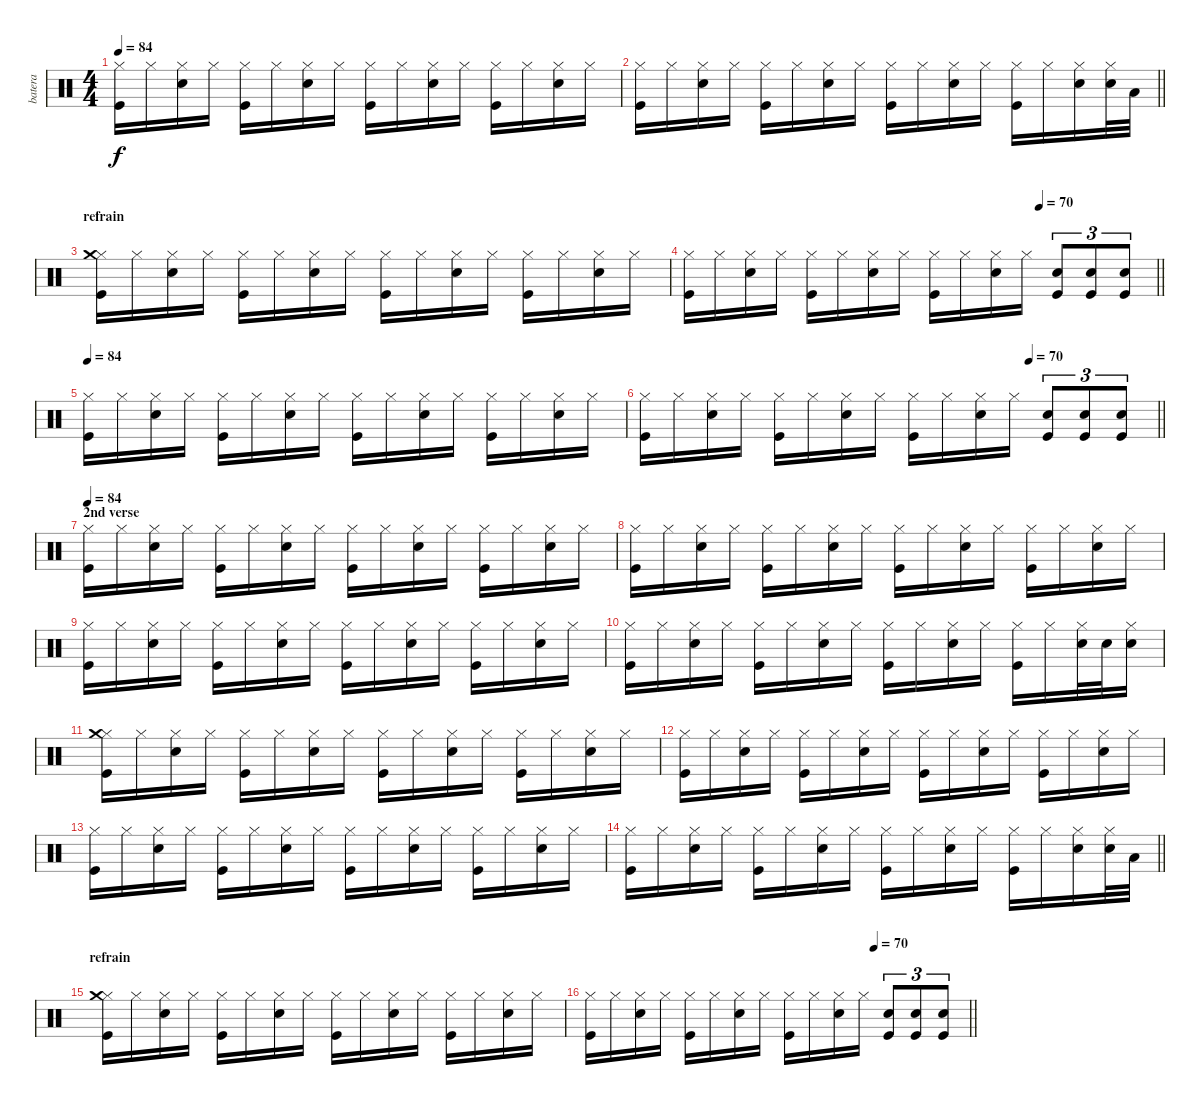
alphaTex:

\track ("batera" "batera") {solo instrument percussion}
\staff {score}
\articulation defaults
\ts (4 4)
\tempo 84
\clef neutral
\ks c
("Hi-Hat (closed)" "Kick (hit)").16{dy f} "Hi-Hat (closed)".16 ("Hi-Hat (closed)" "Snare (hit) 2").16 "Hi-Hat (closed)".16 ("Hi-Hat (closed)" "Kick (hit)").16 "Hi-Hat (closed)".16 ("Hi-Hat (closed)" "Snare (hit) 2").16 "Hi-Hat (closed)".16 ("Hi-Hat (closed)" "Kick (hit)").16 "Hi-Hat (closed)".16 ("Hi-Hat (closed)" "Snare (hit) 2").16 "Hi-Hat (closed)".16 ("Hi-Hat (closed)" "Kick (hit)").16 "Hi-Hat (closed)".16 ("Hi-Hat (closed)" "Snare (hit) 2").16 "Hi-Hat (closed)".16 |
\barLineRight lightlight
("Hi-Hat (closed)" "Kick (hit)").16 "Hi-Hat (closed)".16 ("Hi-Hat (closed)" "Snare (hit) 2").16 "Hi-Hat (closed)".16 ("Hi-Hat (closed)" "Kick (hit)").16 "Hi-Hat (closed)".16 ("Hi-Hat (closed)" "Snare (hit) 2").16 "Hi-Hat (closed)".16 ("Hi-Hat (closed)" "Kick (hit)").16 "Hi-Hat (closed)".16 ("Hi-Hat (closed)" "Snare (hit) 2").16 "Hi-Hat (closed)".16 ("Hi-Hat (closed)" "Kick (hit)").16 "Hi-Hat (closed)".16 ("Hi-Hat (closed)" "Snare (hit) 2").16 ("Hi-Hat (closed)" "Snare (hit) 2").32 "Low Tom (hit)".32 |
\section ("" "refrain")
("Hi-Hat (closed)" "Crash medium (hit)" "Kick (hit)").16 "Hi-Hat (closed)".16 ("Hi-Hat (closed)" "Snare (hit) 2").16 "Hi-Hat (closed)".16 ("Hi-Hat (closed)" "Kick (hit)").16 "Hi-Hat (closed)".16 ("Hi-Hat (closed)" "Snare (hit) 2").16 "Hi-Hat (closed)".16 ("Hi-Hat (closed)" "Kick (hit)").16 "Hi-Hat (closed)".16 ("Hi-Hat (closed)" "Snare (hit) 2").16 "Hi-Hat (closed)".16 ("Hi-Hat (closed)" "Kick (hit)").16 "Hi-Hat (closed)".16 ("Hi-Hat (closed)" "Snare (hit) 2").16 "Hi-Hat (closed)".16 |
\tempo (70 0.75)
\barLineRight lightlight
("Hi-Hat (closed)" "Kick (hit)").16 "Hi-Hat (closed)".16 ("Hi-Hat (closed)" "Snare (hit) 2").16 "Hi-Hat (closed)".16 ("Hi-Hat (closed)" "Kick (hit)").16 "Hi-Hat (closed)".16 ("Hi-Hat (closed)" "Snare (hit) 2").16 "Hi-Hat (closed)".16 ("Hi-Hat (closed)" "Kick (hit)").16 "Hi-Hat (closed)".16 ("Hi-Hat (closed)" "Snare (hit) 2").16 "Hi-Hat (closed)".16 ("Snare (hit) 2" "Kick (hit)").8{tu (3 2)} ("Snare (hit) 2" "Kick (hit)").8{tu (3 2)} ("Snare (hit) 2" "Kick (hit)").8{tu (3 2)} |
\tempo 84
("Hi-Hat (closed)" "Kick (hit)").16 "Hi-Hat (closed)".16 ("Hi-Hat (closed)" "Snare (hit) 2").16 "Hi-Hat (closed)".16 ("Hi-Hat (closed)" "Kick (hit)").16 "Hi-Hat (closed)".16 ("Hi-Hat (closed)" "Snare (hit) 2").16 "Hi-Hat (closed)".16 ("Hi-Hat (closed)" "Kick (hit)").16 "Hi-Hat (closed)".16 ("Hi-Hat (closed)" "Snare (hit) 2").16 "Hi-Hat (closed)".16 ("Hi-Hat (closed)" "Kick (hit)").16 "Hi-Hat (closed)".16 ("Hi-Hat (closed)" "Snare (hit) 2").16 "Hi-Hat (closed)".16 |
\tempo (70 0.75)
\barLineRight lightlight
("Hi-Hat (closed)" "Kick (hit)").16 "Hi-Hat (closed)".16 ("Hi-Hat (closed)" "Snare (hit) 2").16 "Hi-Hat (closed)".16 ("Hi-Hat (closed)" "Kick (hit)").16 "Hi-Hat (closed)".16 ("Hi-Hat (closed)" "Snare (hit) 2").16 "Hi-Hat (closed)".16 ("Hi-Hat (closed)" "Kick (hit)").16 "Hi-Hat (closed)".16 ("Hi-Hat (closed)" "Snare (hit) 2").16 "Hi-Hat (closed)".16 ("Snare (hit) 2" "Kick (hit)").8{tu (3 2)} ("Snare (hit) 2" "Kick (hit)").8{tu (3 2)} ("Snare (hit) 2" "Kick (hit)").8{tu (3 2)} |
\section ("" "2nd verse")
\tempo 84
("Hi-Hat (closed)" "Kick (hit)").16 "Hi-Hat (closed)".16 ("Hi-Hat (closed)" "Snare (hit) 2").16 "Hi-Hat (closed)".16 ("Hi-Hat (closed)" "Kick (hit)").16 "Hi-Hat (closed)".16 ("Hi-Hat (closed)" "Snare (hit) 2").16 "Hi-Hat (closed)".16 ("Hi-Hat (closed)" "Kick (hit)").16 "Hi-Hat (closed)".16 ("Hi-Hat (closed)" "Snare (hit) 2").16 "Hi-Hat (closed)".16 ("Hi-Hat (closed)" "Kick (hit)").16 "Hi-Hat (closed)".16 ("Hi-Hat (closed)" "Snare (hit) 2").16 "Hi-Hat (closed)".16 |
("Hi-Hat (closed)" "Kick (hit)").16 "Hi-Hat (closed)".16 ("Hi-Hat (closed)" "Snare (hit) 2").16 "Hi-Hat (closed)".16 ("Hi-Hat (closed)" "Kick (hit)").16 "Hi-Hat (closed)".16 ("Hi-Hat (closed)" "Snare (hit) 2").16 "Hi-Hat (closed)".16 ("Hi-Hat (closed)" "Kick (hit)").16 "Hi-Hat (closed)".16 ("Hi-Hat (closed)" "Snare (hit) 2").16 "Hi-Hat (closed)".16 ("Hi-Hat (closed)" "Kick (hit)").16 "Hi-Hat (closed)".16 ("Hi-Hat (closed)" "Snare (hit) 2").16 "Hi-Hat (closed)".16 |
("Hi-Hat (closed)" "Kick (hit)").16 "Hi-Hat (closed)".16 ("Hi-Hat (closed)" "Snare (hit) 2").16 "Hi-Hat (closed)".16 ("Hi-Hat (closed)" "Kick (hit)").16 "Hi-Hat (closed)".16 ("Hi-Hat (closed)" "Snare (hit) 2").16 "Hi-Hat (closed)".16 ("Hi-Hat (closed)" "Kick (hit)").16 "Hi-Hat (closed)".16 ("Hi-Hat (closed)" "Snare (hit) 2").16 "Hi-Hat (closed)".16 ("Hi-Hat (closed)" "Kick (hit)").16 "Hi-Hat (closed)".16 ("Hi-Hat (closed)" "Snare (hit) 2").16 "Hi-Hat (closed)".16 |
("Hi-Hat (closed)" "Kick (hit)").16 "Hi-Hat (closed)".16 ("Hi-Hat (closed)" "Snare (hit) 2").16 "Hi-Hat (closed)".16 ("Hi-Hat (closed)" "Kick (hit)").16 "Hi-Hat (closed)".16 ("Hi-Hat (closed)" "Snare (hit) 2").16 "Hi-Hat (closed)".16 ("Hi-Hat (closed)" "Kick (hit)").16 "Hi-Hat (closed)".16 ("Hi-Hat (closed)" "Snare (hit) 2").16 "Hi-Hat (closed)".16 ("Hi-Hat (closed)" "Kick (hit)").16 "Hi-Hat (closed)".16 ("Hi-Hat (closed)" "Snare (hit) 2").32 "Snare (hit) 2".32 ("Hi-Hat (closed)" "Snare (hit) 2").16 |
("Hi-Hat (closed)" "Crash medium (hit)" "Kick (hit)").16 "Hi-Hat (closed)".16 ("Hi-Hat (closed)" "Snare (hit) 2").16 "Hi-Hat (closed)".16 ("Hi-Hat (closed)" "Kick (hit)").16 "Hi-Hat (closed)".16 ("Hi-Hat (closed)" "Snare (hit) 2").16 "Hi-Hat (closed)".16 ("Hi-Hat (closed)" "Kick (hit)").16 "Hi-Hat (closed)".16 ("Hi-Hat (closed)" "Snare (hit) 2").16 "Hi-Hat (closed)".16 ("Hi-Hat (closed)" "Kick (hit)").16 "Hi-Hat (closed)".16 ("Hi-Hat (closed)" "Snare (hit) 2").16 "Hi-Hat (closed)".16 |
("Hi-Hat (closed)" "Kick (hit)").16 "Hi-Hat (closed)".16 ("Hi-Hat (closed)" "Snare (hit) 2").16 "Hi-Hat (closed)".16 ("Hi-Hat (closed)" "Kick (hit)").16 "Hi-Hat (closed)".16 ("Hi-Hat (closed)" "Snare (hit) 2").16 "Hi-Hat (closed)".16 ("Hi-Hat (closed)" "Kick (hit)").16 "Hi-Hat (closed)".16 ("Hi-Hat (closed)" "Snare (hit) 2").16 "Hi-Hat (closed)".16 ("Hi-Hat (closed)" "Kick (hit)").16 "Hi-Hat (closed)".16 ("Hi-Hat (closed)" "Snare (hit) 2").16 "Hi-Hat (closed)".16 |
("Hi-Hat (closed)" "Kick (hit)").16 "Hi-Hat (closed)".16 ("Hi-Hat (closed)" "Snare (hit) 2").16 "Hi-Hat (closed)".16 ("Hi-Hat (closed)" "Kick (hit)").16 "Hi-Hat (closed)".16 ("Hi-Hat (closed)" "Snare (hit) 2").16 "Hi-Hat (closed)".16 ("Hi-Hat (closed)" "Kick (hit)").16 "Hi-Hat (closed)".16 ("Hi-Hat (closed)" "Snare (hit) 2").16 "Hi-Hat (closed)".16 ("Hi-Hat (closed)" "Kick (hit)").16 "Hi-Hat (closed)".16 ("Hi-Hat (closed)" "Snare (hit) 2").16 "Hi-Hat (closed)".16 |
\barLineRight lightlight
("Hi-Hat (closed)" "Kick (hit)").16 "Hi-Hat (closed)".16 ("Hi-Hat (closed)" "Snare (hit) 2").16 "Hi-Hat (closed)".16 ("Hi-Hat (closed)" "Kick (hit)").16 "Hi-Hat (closed)".16 ("Hi-Hat (closed)" "Snare (hit) 2").16 "Hi-Hat (closed)".16 ("Hi-Hat (closed)" "Kick (hit)").16 "Hi-Hat (closed)".16 ("Hi-Hat (closed)" "Snare (hit) 2").16 "Hi-Hat (closed)".16 ("Hi-Hat (closed)" "Kick (hit)").16 "Hi-Hat (closed)".16 ("Hi-Hat (closed)" "Snare (hit) 2").16 ("Hi-Hat (closed)" "Snare (hit) 2").32 "Low Tom (hit)".32 |
\section ("" "refrain")
("Hi-Hat (closed)" "Crash medium (hit)" "Kick (hit)").16 "Hi-Hat (closed)".16 ("Hi-Hat (closed)" "Snare (hit) 2").16 "Hi-Hat (closed)".16 ("Hi-Hat (closed)" "Kick (hit)").16 "Hi-Hat (closed)".16 ("Hi-Hat (closed)" "Snare (hit) 2").16 "Hi-Hat (closed)".16 ("Hi-Hat (closed)" "Kick (hit)").16 "Hi-Hat (closed)".16 ("Hi-Hat (closed)" "Snare (hit) 2").16 "Hi-Hat (closed)".16 ("Hi-Hat (closed)" "Kick (hit)").16 "Hi-Hat (closed)".16 ("Hi-Hat (closed)" "Snare (hit) 2").16 "Hi-Hat (closed)".16 |
\tempo (70 0.75)
\barLineRight lightlight
("Hi-Hat (closed)" "Kick (hit)").16 "Hi-Hat (closed)".16 ("Hi-Hat (closed)" "Snare (hit) 2").16 "Hi-Hat (closed)".16 ("Hi-Hat (closed)" "Kick (hit)").16 "Hi-Hat (closed)".16 ("Hi-Hat (closed)" "Snare (hit) 2").16 "Hi-Hat (closed)".16 ("Hi-Hat (closed)" "Kick (hit)").16 "Hi-Hat (closed)".16 ("Hi-Hat (closed)" "Snare (hit) 2").16 "Hi-Hat (closed)".16 ("Snare (hit) 2" "Kick (hit)").8{tu (3 2)} ("Snare (hit) 2" "Kick (hit)").8{tu (3 2)} ("Snare (hit) 2" "Kick (hit)").8{tu (3 2)}
